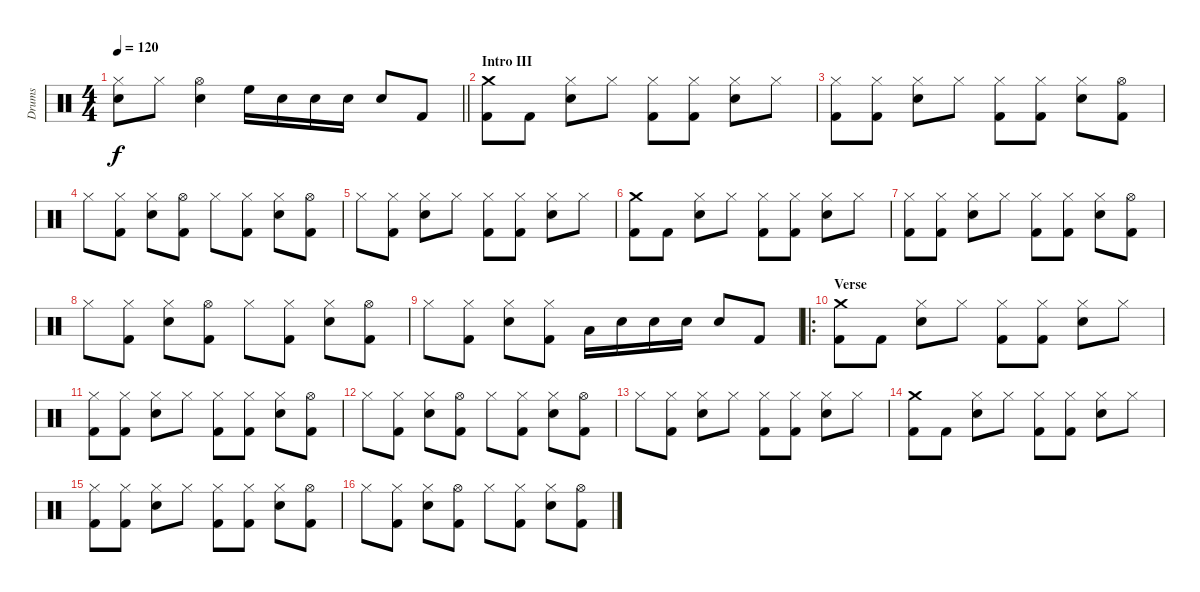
\track ("Drums" "Drums") {instrument percussion}
\staff {score}
\articulation defaults
\ts (4 4)
\tempo 120
\clef neutral
\barLineRight lightlight
\ks c
("Hi-Hat (closed)" "Snare (hit) 2").8{dy f} "Hi-Hat (closed)".8 ("Hi-Hat (open)" "Snare (hit) 2").4 "High Floor Tom (hit)".16 "Snare (hit) 2".16 "Snare (hit) 2".16 "Snare (hit) 2".16 "Snare (hit) 2".8 "Kick (hit) 2".8 |
\section ("" "Intro III")
("Crash medium (hit)" "Kick (hit) 2").8 "Kick (hit) 2".8 ("Hi-Hat (closed)" "Snare (hit) 2").8 "Hi-Hat (closed)".8 ("Hi-Hat (closed)" "Kick (hit) 2").8 ("Hi-Hat (closed)" "Kick (hit) 2").8 ("Hi-Hat (closed)" "Snare (hit) 2").8 "Hi-Hat (closed)".8 |
("Hi-Hat (closed)" "Kick (hit) 2").8 ("Hi-Hat (closed)" "Kick (hit) 2").8 ("Hi-Hat (closed)" "Snare (hit) 2").8 "Hi-Hat (closed)".8 ("Hi-Hat (closed)" "Kick (hit) 2").8 ("Hi-Hat (closed)" "Kick (hit) 2").8 ("Hi-Hat (closed)" "Snare (hit) 2").8 ("Hi-Hat (open)" "Kick (hit) 2").8 |
"Hi-Hat (closed)".8 ("Hi-Hat (closed)" "Kick (hit) 2").8 ("Hi-Hat (closed)" "Snare (hit) 2").8 ("Hi-Hat (open)" "Kick (hit) 2").8 "Hi-Hat (closed)".8 ("Hi-Hat (closed)" "Kick (hit) 2").8 ("Hi-Hat (closed)" "Snare (hit) 2").8 ("Hi-Hat (open)" "Kick (hit) 2").8 |
"Hi-Hat (closed)".8 ("Hi-Hat (closed)" "Kick (hit) 2").8 ("Hi-Hat (closed)" "Snare (hit) 2").8 "Hi-Hat (closed)".8 ("Hi-Hat (closed)" "Kick (hit) 2").8 ("Hi-Hat (closed)" "Kick (hit) 2").8 ("Hi-Hat (closed)" "Snare (hit) 2").8 "Hi-Hat (closed)".8 |
("Crash medium (hit)" "Kick (hit) 2").8 "Kick (hit) 2".8 ("Hi-Hat (closed)" "Snare (hit) 2").8 "Hi-Hat (closed)".8 ("Hi-Hat (closed)" "Kick (hit) 2").8 ("Hi-Hat (closed)" "Kick (hit) 2").8 ("Hi-Hat (closed)" "Snare (hit) 2").8 "Hi-Hat (closed)".8 |
("Hi-Hat (closed)" "Kick (hit) 2").8 ("Hi-Hat (closed)" "Kick (hit) 2").8 ("Hi-Hat (closed)" "Snare (hit) 2").8 "Hi-Hat (closed)".8 ("Hi-Hat (closed)" "Kick (hit) 2").8 ("Hi-Hat (closed)" "Kick (hit) 2").8 ("Hi-Hat (closed)" "Snare (hit) 2").8 ("Hi-Hat (open)" "Kick (hit) 2").8 |
"Hi-Hat (closed)".8 ("Hi-Hat (closed)" "Kick (hit) 2").8 ("Hi-Hat (closed)" "Snare (hit) 2").8 ("Hi-Hat (open)" "Kick (hit) 2").8 "Hi-Hat (closed)".8 ("Hi-Hat (closed)" "Kick (hit) 2").8 ("Hi-Hat (closed)" "Snare (hit) 2").8 ("Hi-Hat (open)" "Kick (hit) 2").8 |
"Hi-Hat (closed)".8 ("Hi-Hat (closed)" "Kick (hit) 2").8 ("Hi-Hat (closed)" "Snare (hit) 2").8 ("Hi-Hat (closed)" "Kick (hit) 2").8 "Low Tom (hit)".16 "Snare (hit) 2".16 "Snare (hit) 2".16 "Snare (hit) 2".16 "Snare (hit) 2".8 "Kick (hit) 2".8 |
\ro
\section ("" "Verse")
("Crash medium (hit)" "Kick (hit) 2").8 "Kick (hit) 2".8 ("Hi-Hat (closed)" "Snare (hit) 2").8 "Hi-Hat (closed)".8 ("Hi-Hat (closed)" "Kick (hit) 2").8 ("Hi-Hat (closed)" "Kick (hit) 2").8 ("Hi-Hat (closed)" "Snare (hit) 2").8 "Hi-Hat (closed)".8 |
("Hi-Hat (closed)" "Kick (hit) 2").8 ("Hi-Hat (closed)" "Kick (hit) 2").8 ("Hi-Hat (closed)" "Snare (hit) 2").8 "Hi-Hat (closed)".8 ("Hi-Hat (closed)" "Kick (hit) 2").8 ("Hi-Hat (closed)" "Kick (hit) 2").8 ("Hi-Hat (closed)" "Snare (hit) 2").8 ("Hi-Hat (open)" "Kick (hit) 2").8 |
"Hi-Hat (closed)".8 ("Hi-Hat (closed)" "Kick (hit) 2").8 ("Hi-Hat (closed)" "Snare (hit) 2").8 ("Hi-Hat (open)" "Kick (hit) 2").8 "Hi-Hat (closed)".8 ("Hi-Hat (closed)" "Kick (hit) 2").8 ("Hi-Hat (closed)" "Snare (hit) 2").8 ("Hi-Hat (open)" "Kick (hit) 2").8 |
"Hi-Hat (closed)".8 ("Hi-Hat (closed)" "Kick (hit) 2").8 ("Hi-Hat (closed)" "Snare (hit) 2").8 "Hi-Hat (closed)".8 ("Hi-Hat (closed)" "Kick (hit) 2").8 ("Hi-Hat (closed)" "Kick (hit) 2").8 ("Hi-Hat (closed)" "Snare (hit) 2").8 "Hi-Hat (closed)".8 |
("Crash medium (hit)" "Kick (hit) 2").8 "Kick (hit) 2".8 ("Hi-Hat (closed)" "Snare (hit) 2").8 "Hi-Hat (closed)".8 ("Hi-Hat (closed)" "Kick (hit) 2").8 ("Hi-Hat (closed)" "Kick (hit) 2").8 ("Hi-Hat (closed)" "Snare (hit) 2").8 "Hi-Hat (closed)".8 |
("Hi-Hat (closed)" "Kick (hit) 2").8 ("Hi-Hat (closed)" "Kick (hit) 2").8 ("Hi-Hat (closed)" "Snare (hit) 2").8 "Hi-Hat (closed)".8 ("Hi-Hat (closed)" "Kick (hit) 2").8 ("Hi-Hat (closed)" "Kick (hit) 2").8 ("Hi-Hat (closed)" "Snare (hit) 2").8 ("Hi-Hat (open)" "Kick (hit) 2").8 |
"Hi-Hat (closed)".8 ("Hi-Hat (closed)" "Kick (hit) 2").8 ("Hi-Hat (closed)" "Snare (hit) 2").8 ("Hi-Hat (open)" "Kick (hit) 2").8 "Hi-Hat (closed)".8 ("Hi-Hat (closed)" "Kick (hit) 2").8 ("Hi-Hat (closed)" "Snare (hit) 2").8 ("Hi-Hat (open)" "Kick (hit) 2").8
